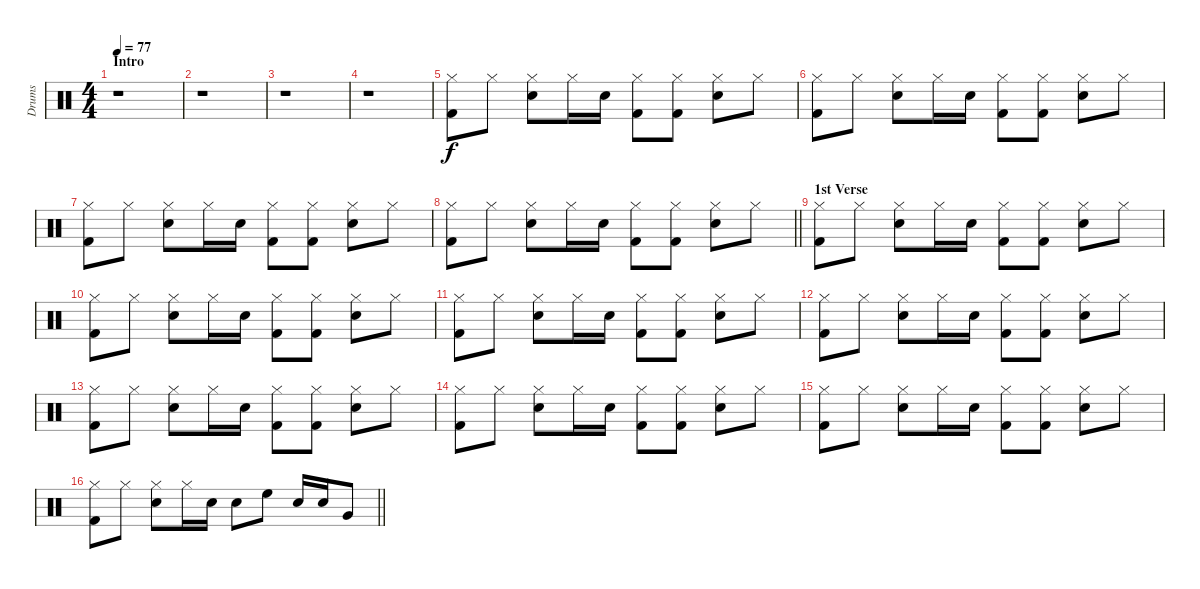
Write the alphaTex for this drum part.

\track ("Drums" "Drums") {instrument percussion}
\staff {score}
\articulation defaults
\ts (4 4)
\section ("" "Intro")
\tempo 77
\clef neutral
\ks c
r.1{dy f} |
r.1 |
r.1 |
r.1 |
("Hi-Hat (closed)" "Kick (hit) 2").8 "Hi-Hat (closed)".8 ("Hi-Hat (closed)" "Snare (hit) 2").8 "Hi-Hat (closed)".16 "Snare (hit) 2".16 ("Hi-Hat (closed)" "Kick (hit) 2").8 ("Hi-Hat (closed)" "Kick (hit) 2").8 ("Hi-Hat (closed)" "Snare (hit) 2").8 "Hi-Hat (closed)".8 |
("Hi-Hat (closed)" "Kick (hit) 2").8 "Hi-Hat (closed)".8 ("Hi-Hat (closed)" "Snare (hit) 2").8 "Hi-Hat (closed)".16 "Snare (hit) 2".16 ("Hi-Hat (closed)" "Kick (hit) 2").8 ("Hi-Hat (closed)" "Kick (hit) 2").8 ("Hi-Hat (closed)" "Snare (hit) 2").8 "Hi-Hat (closed)".8 |
("Hi-Hat (closed)" "Kick (hit) 2").8 "Hi-Hat (closed)".8 ("Hi-Hat (closed)" "Snare (hit) 2").8 "Hi-Hat (closed)".16 "Snare (hit) 2".16 ("Hi-Hat (closed)" "Kick (hit) 2").8 ("Hi-Hat (closed)" "Kick (hit) 2").8 ("Hi-Hat (closed)" "Snare (hit) 2").8 "Hi-Hat (closed)".8 |
\barLineRight lightlight
("Hi-Hat (closed)" "Kick (hit) 2").8 "Hi-Hat (closed)".8 ("Hi-Hat (closed)" "Snare (hit) 2").8 "Hi-Hat (closed)".16 "Snare (hit) 2".16 ("Hi-Hat (closed)" "Kick (hit) 2").8 ("Hi-Hat (closed)" "Kick (hit) 2").8 ("Hi-Hat (closed)" "Snare (hit) 2").8 "Hi-Hat (closed)".8 |
\section ("" "1st Verse ")
("Hi-Hat (closed)" "Kick (hit) 2").8 "Hi-Hat (closed)".8 ("Hi-Hat (closed)" "Snare (hit) 2").8 "Hi-Hat (closed)".16 "Snare (hit) 2".16 ("Hi-Hat (closed)" "Kick (hit) 2").8 ("Hi-Hat (closed)" "Kick (hit) 2").8 ("Hi-Hat (closed)" "Snare (hit) 2").8 "Hi-Hat (closed)".8 |
("Hi-Hat (closed)" "Kick (hit) 2").8 "Hi-Hat (closed)".8 ("Hi-Hat (closed)" "Snare (hit) 2").8 "Hi-Hat (closed)".16 "Snare (hit) 2".16 ("Hi-Hat (closed)" "Kick (hit) 2").8 ("Hi-Hat (closed)" "Kick (hit) 2").8 ("Hi-Hat (closed)" "Snare (hit) 2").8 "Hi-Hat (closed)".8 |
("Hi-Hat (closed)" "Kick (hit) 2").8 "Hi-Hat (closed)".8 ("Hi-Hat (closed)" "Snare (hit) 2").8 "Hi-Hat (closed)".16 "Snare (hit) 2".16 ("Hi-Hat (closed)" "Kick (hit) 2").8 ("Hi-Hat (closed)" "Kick (hit) 2").8 ("Hi-Hat (closed)" "Snare (hit) 2").8 "Hi-Hat (closed)".8 |
("Hi-Hat (closed)" "Kick (hit) 2").8 "Hi-Hat (closed)".8 ("Hi-Hat (closed)" "Snare (hit) 2").8 "Hi-Hat (closed)".16 "Snare (hit) 2".16 ("Hi-Hat (closed)" "Kick (hit) 2").8 ("Hi-Hat (closed)" "Kick (hit) 2").8 ("Hi-Hat (closed)" "Snare (hit) 2").8 "Hi-Hat (closed)".8 |
("Hi-Hat (closed)" "Kick (hit) 2").8 "Hi-Hat (closed)".8 ("Hi-Hat (closed)" "Snare (hit) 2").8 "Hi-Hat (closed)".16 "Snare (hit) 2".16 ("Hi-Hat (closed)" "Kick (hit) 2").8 ("Hi-Hat (closed)" "Kick (hit) 2").8 ("Hi-Hat (closed)" "Snare (hit) 2").8 "Hi-Hat (closed)".8 |
("Hi-Hat (closed)" "Kick (hit) 2").8 "Hi-Hat (closed)".8 ("Hi-Hat (closed)" "Snare (hit) 2").8 "Hi-Hat (closed)".16 "Snare (hit) 2".16 ("Hi-Hat (closed)" "Kick (hit) 2").8 ("Hi-Hat (closed)" "Kick (hit) 2").8 ("Hi-Hat (closed)" "Snare (hit) 2").8 "Hi-Hat (closed)".8 |
("Hi-Hat (closed)" "Kick (hit) 2").8 "Hi-Hat (closed)".8 ("Hi-Hat (closed)" "Snare (hit) 2").8 "Hi-Hat (closed)".16 "Snare (hit) 2".16 ("Hi-Hat (closed)" "Kick (hit) 2").8 ("Hi-Hat (closed)" "Kick (hit) 2").8 ("Hi-Hat (closed)" "Snare (hit) 2").8 "Hi-Hat (closed)".8 |
\barLineRight lightlight
("Hi-Hat (closed)" "Kick (hit) 2").8 "Hi-Hat (closed)".8 ("Hi-Hat (closed)" "Snare (hit) 2").8 "Hi-Hat (closed)".16 "Snare (hit) 2".16 "Snare (hit) 2".8 "High Floor Tom (hit)".8 "Snare (hit) 2".16 "Snare (hit) 2".16 "Very Low Tom (hit)".8
